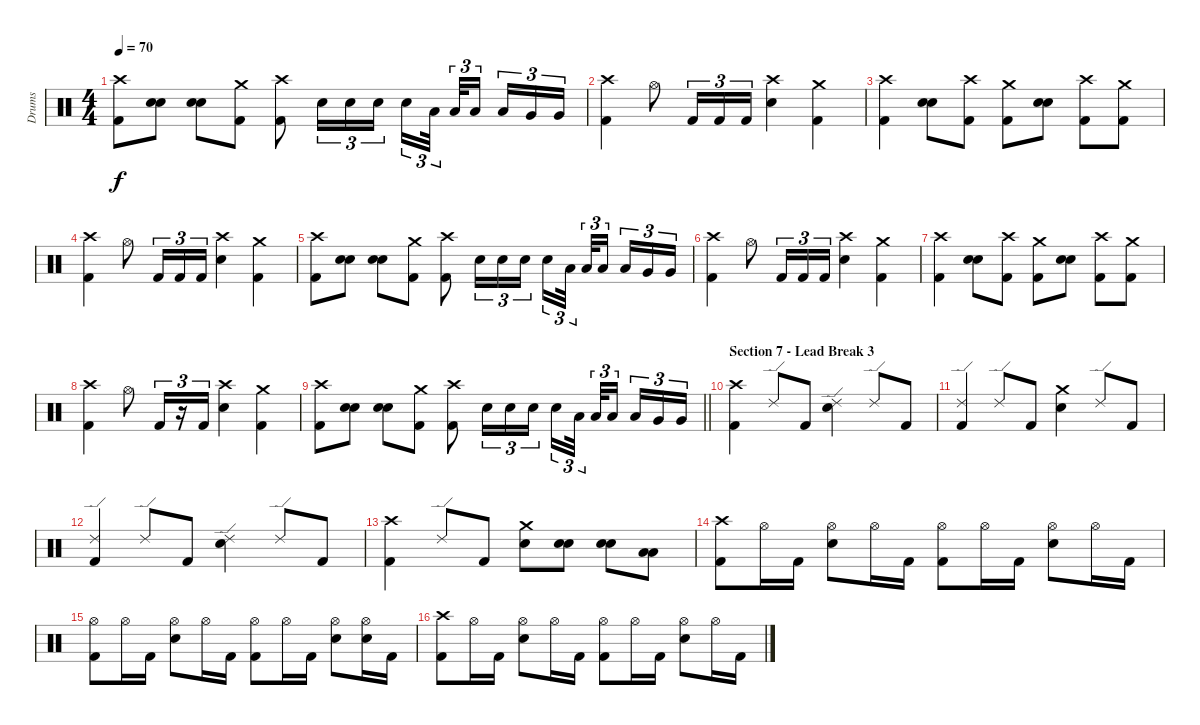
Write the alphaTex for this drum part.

\track ("Drums" "Drums") {instrument percussion}
\staff {score}
\articulation defaults
\ts (4 4)
\tempo 70
\clef neutral
\ks c
("Crash high (hit)" "Kick (hit) 2").8{dy f} ("Electric Snare (hit)" "Electric Snare (hit)").8{bu 60} ("Electric Snare (hit)" "Electric Snare (hit)").8{bu 60} ("Crash medium (hit)" "Kick (hit) 2").8 ("Crash high (hit)" "Kick (hit) 2").8 "Electric Snare (hit)".16{tu (3 2)} "Electric Snare (hit)".16{tu (3 2)} "Electric Snare (hit)".16{tu (3 2)} "Electric Snare (hit)".16{tu (3 2)} "Low Tom (hit)".32{tu (3 2)} "Low Tom (hit)".32{tu (3 2)} "Low Tom (hit)".16{tu (3 2)} "Low Tom (hit)".16{tu (3 2)} "Very Low Tom (hit)".16{tu (3 2)} "Very Low Tom (hit)".16{tu (3 2)} |
("Crash high (hit)" "Kick (hit) 2").4 "Hi-Hat (open)".8 "Kick (hit) 2".16{tu (3 2)} "Kick (hit) 2".16{tu (3 2)} "Kick (hit) 2".16{tu (3 2)} ("Crash high (hit)" "Electric Snare (hit)").4 ("Crash medium (hit)" "Kick (hit) 2").4 |
("Crash high (hit)" "Kick (hit) 2").4 ("Electric Snare (hit)" "Electric Snare (hit)").8{bu 60} ("Crash high (hit)" "Kick (hit) 2").8 ("Crash medium (hit)" "Kick (hit) 2").8 ("Electric Snare (hit)" "Electric Snare (hit)").8{bu 60} ("Crash high (hit)" "Kick (hit) 2").8 ("Crash medium (hit)" "Kick (hit) 2").8 |
("Crash high (hit)" "Kick (hit) 2").4 "Hi-Hat (open)".8 "Kick (hit) 2".16{tu (3 2)} "Kick (hit) 2".16{tu (3 2)} "Kick (hit) 2".16{tu (3 2)} ("Crash high (hit)" "Electric Snare (hit)").4 ("Crash medium (hit)" "Kick (hit) 2").4 |
("Crash high (hit)" "Kick (hit) 2").8 ("Electric Snare (hit)" "Electric Snare (hit)").8{bu 60} ("Electric Snare (hit)" "Electric Snare (hit)").8{bu 60} ("Crash medium (hit)" "Kick (hit) 2").8 ("Crash high (hit)" "Kick (hit) 2").8 "Electric Snare (hit)".16{tu (3 2)} "Electric Snare (hit)".16{tu (3 2)} "Electric Snare (hit)".16{tu (3 2)} "Electric Snare (hit)".16{tu (3 2)} "Low Tom (hit)".32{tu (3 2)} "Low Tom (hit)".32{tu (3 2)} "Low Tom (hit)".16{tu (3 2)} "Low Tom (hit)".16{tu (3 2)} "Very Low Tom (hit)".16{tu (3 2)} "Very Low Tom (hit)".16{tu (3 2)} |
("Crash high (hit)" "Kick (hit) 2").4 "Hi-Hat (open)".8 "Kick (hit) 2".16{tu (3 2)} "Kick (hit) 2".16{tu (3 2)} "Kick (hit) 2".16{tu (3 2)} ("Crash high (hit)" "Electric Snare (hit)").4 ("Crash medium (hit)" "Kick (hit) 2").4 |
("Crash high (hit)" "Kick (hit) 2").4 ("Electric Snare (hit)" "Electric Snare (hit)").8{bu 60} ("Crash high (hit)" "Kick (hit) 2").8 ("Crash medium (hit)" "Kick (hit) 2").8 ("Electric Snare (hit)" "Electric Snare (hit)").8{bu 60} ("Crash high (hit)" "Kick (hit) 2").8 ("Crash medium (hit)" "Kick (hit) 2").8 |
("Crash high (hit)" "Kick (hit) 2").4 "Hi-Hat (open)".8 "Kick (hit) 2".16{tu (3 2)} r.16{tu (3 2)} "Kick (hit) 2".16{tu (3 2)} ("Crash high (hit)" "Electric Snare (hit)").4 ("Crash medium (hit)" "Kick (hit) 2").4 |
\barLineRight lightlight
("Crash high (hit)" "Kick (hit) 2").8 ("Electric Snare (hit)" "Electric Snare (hit)").8{bu 60} ("Electric Snare (hit)" "Electric Snare (hit)").8{bu 60} ("Crash medium (hit)" "Kick (hit) 2").8 ("Crash high (hit)" "Kick (hit) 2").8 "Electric Snare (hit)".16{tu (3 2)} "Electric Snare (hit)".16{tu (3 2)} "Electric Snare (hit)".16{tu (3 2)} "Electric Snare (hit)".16{tu (3 2)} "Low Tom (hit)".32{tu (3 2)} "Low Tom (hit)".32{tu (3 2)} "Low Tom (hit)".16{tu (3 2)} "Low Tom (hit)".16{tu (3 2)} "Very Low Tom (hit)".16{tu (3 2)} "Very Low Tom (hit)".16{tu (3 2)} |
\section ("" "Section 7 - Lead Break 3")
("Crash high (hit)" "Kick (hit) 2").4 "Ride (edge) 2".8 "Kick (hit) 2".8 ("Ride (edge) 2" "Electric Snare (hit)").4 "Ride (edge) 2".8 "Kick (hit) 2".8 |
("Ride (edge) 2" "Kick (hit) 2").4 "Ride (edge) 2".8 "Kick (hit) 2".8 ("Crash medium (hit)" "Electric Snare (hit)").4 "Ride (edge) 2".8 "Kick (hit) 2".8 |
("Ride (edge) 2" "Kick (hit) 2").4 "Ride (edge) 2".8 "Kick (hit) 2".8 ("Ride (edge) 2" "Electric Snare (hit)").4 "Ride (edge) 2".8 "Kick (hit) 2".8 |
("Crash high (hit)" "Kick (hit) 2").4 "Ride (edge) 2".8 "Kick (hit) 2".8 ("Crash medium (hit)" "Electric Snare (hit)").8 ("Electric Snare (hit)" "Electric Snare (hit)").8{bu 60} ("Electric Snare (hit)" "Electric Snare (hit)").8{bu 60} ("Low Tom (hit)" "Low Tom (hit)").8{bu 60} |
("Crash high (hit)" "Kick (hit) 2").8 "Hi-Hat (open)".16 "Kick (hit) 2".16 ("Hi-Hat (open)" "Electric Snare (hit)").8 "Hi-Hat (open)".16 "Kick (hit) 2".16 ("Hi-Hat (open)" "Kick (hit) 2").8 "Hi-Hat (open)".16 "Kick (hit) 2".16 ("Hi-Hat (open)" "Electric Snare (hit)").8 "Hi-Hat (open)".16 "Kick (hit) 2".16 |
("Hi-Hat (open)" "Kick (hit) 2").8 "Hi-Hat (open)".16 "Kick (hit) 2".16 ("Hi-Hat (open)" "Electric Snare (hit)").8 "Hi-Hat (open)".16 "Kick (hit) 2".16 ("Hi-Hat (open)" "Kick (hit) 2").8 "Hi-Hat (open)".16 "Kick (hit) 2".16 ("Hi-Hat (open)" "Electric Snare (hit)").8 ("Hi-Hat (open)" "Electric Snare (hit)").16 "Kick (hit) 2".16 |
("Crash high (hit)" "Kick (hit) 2").8 "Hi-Hat (open)".16 "Kick (hit) 2".16 ("Hi-Hat (open)" "Electric Snare (hit)").8 "Hi-Hat (open)".16 "Kick (hit) 2".16 ("Hi-Hat (open)" "Kick (hit) 2").8 "Hi-Hat (open)".16 "Kick (hit) 2".16 ("Hi-Hat (open)" "Electric Snare (hit)").8 "Hi-Hat (open)".16 "Kick (hit) 2".16
